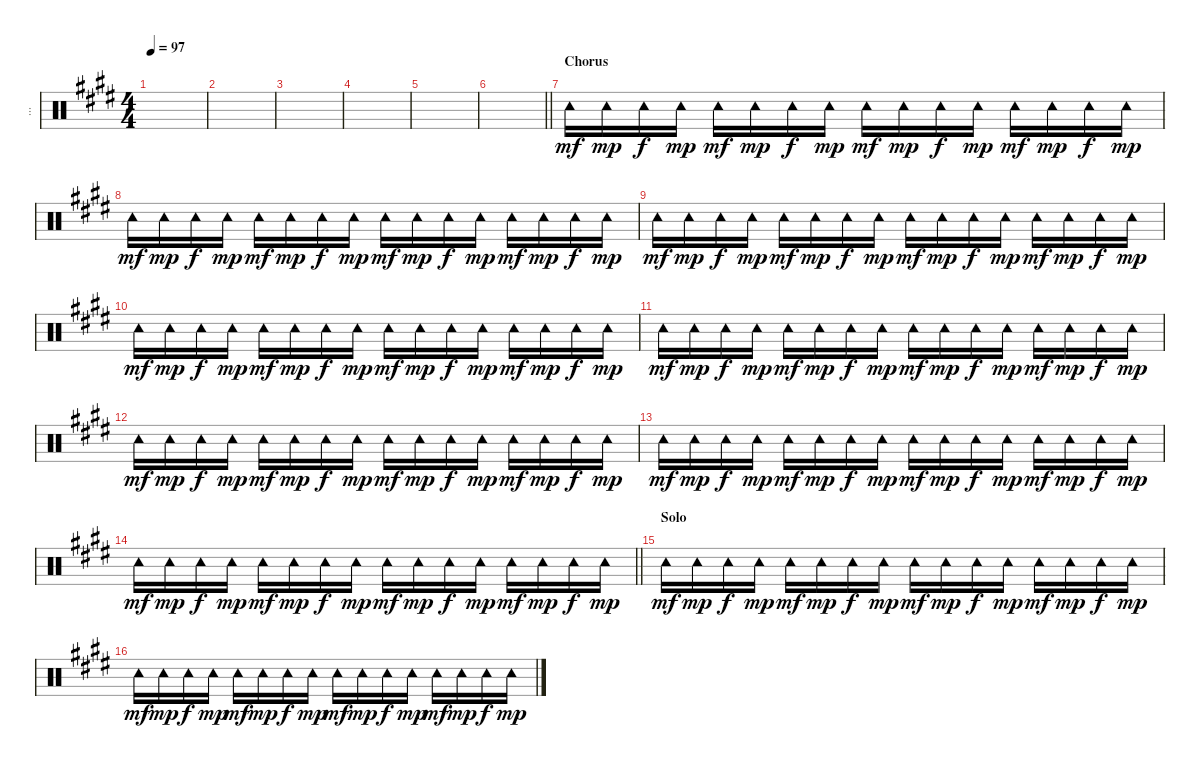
\track ("..." "...") {instrument percussion}
\staff {score}
\articulation defaults
\ts (4 4)
\tempo 97
\clef neutral
\ks c#minor
|
|
|
|
|
\barLineRight lightlight
|
\section ("" "Chorus")
"Tambourine (hit)".16{dy mf} "Tambourine (hit)".16{dy mp} "Tambourine (hit)".16{dy f} "Tambourine (hit)".16{dy mp} "Tambourine (hit)".16{dy mf} "Tambourine (hit)".16{dy mp} "Tambourine (hit)".16{dy f} "Tambourine (hit)".16{dy mp} "Tambourine (hit)".16{dy mf} "Tambourine (hit)".16{dy mp} "Tambourine (hit)".16{dy f} "Tambourine (hit)".16{dy mp} "Tambourine (hit)".16{dy mf} "Tambourine (hit)".16{dy mp} "Tambourine (hit)".16{dy f} "Tambourine (hit)".16{dy mp} |
"Tambourine (hit)".16{dy mf} "Tambourine (hit)".16{dy mp} "Tambourine (hit)".16{dy f} "Tambourine (hit)".16{dy mp} "Tambourine (hit)".16{dy mf} "Tambourine (hit)".16{dy mp} "Tambourine (hit)".16{dy f} "Tambourine (hit)".16{dy mp} "Tambourine (hit)".16{dy mf} "Tambourine (hit)".16{dy mp} "Tambourine (hit)".16{dy f} "Tambourine (hit)".16{dy mp} "Tambourine (hit)".16{dy mf} "Tambourine (hit)".16{dy mp} "Tambourine (hit)".16{dy f} "Tambourine (hit)".16{dy mp} |
"Tambourine (hit)".16{dy mf} "Tambourine (hit)".16{dy mp} "Tambourine (hit)".16{dy f} "Tambourine (hit)".16{dy mp} "Tambourine (hit)".16{dy mf} "Tambourine (hit)".16{dy mp} "Tambourine (hit)".16{dy f} "Tambourine (hit)".16{dy mp} "Tambourine (hit)".16{dy mf} "Tambourine (hit)".16{dy mp} "Tambourine (hit)".16{dy f} "Tambourine (hit)".16{dy mp} "Tambourine (hit)".16{dy mf} "Tambourine (hit)".16{dy mp} "Tambourine (hit)".16{dy f} "Tambourine (hit)".16{dy mp} |
"Tambourine (hit)".16{dy mf} "Tambourine (hit)".16{dy mp} "Tambourine (hit)".16{dy f} "Tambourine (hit)".16{dy mp} "Tambourine (hit)".16{dy mf} "Tambourine (hit)".16{dy mp} "Tambourine (hit)".16{dy f} "Tambourine (hit)".16{dy mp} "Tambourine (hit)".16{dy mf} "Tambourine (hit)".16{dy mp} "Tambourine (hit)".16{dy f} "Tambourine (hit)".16{dy mp} "Tambourine (hit)".16{dy mf} "Tambourine (hit)".16{dy mp} "Tambourine (hit)".16{dy f} "Tambourine (hit)".16{dy mp} |
"Tambourine (hit)".16{dy mf} "Tambourine (hit)".16{dy mp} "Tambourine (hit)".16{dy f} "Tambourine (hit)".16{dy mp} "Tambourine (hit)".16{dy mf} "Tambourine (hit)".16{dy mp} "Tambourine (hit)".16{dy f} "Tambourine (hit)".16{dy mp} "Tambourine (hit)".16{dy mf} "Tambourine (hit)".16{dy mp} "Tambourine (hit)".16{dy f} "Tambourine (hit)".16{dy mp} "Tambourine (hit)".16{dy mf} "Tambourine (hit)".16{dy mp} "Tambourine (hit)".16{dy f} "Tambourine (hit)".16{dy mp} |
"Tambourine (hit)".16{dy mf} "Tambourine (hit)".16{dy mp} "Tambourine (hit)".16{dy f} "Tambourine (hit)".16{dy mp} "Tambourine (hit)".16{dy mf} "Tambourine (hit)".16{dy mp} "Tambourine (hit)".16{dy f} "Tambourine (hit)".16{dy mp} "Tambourine (hit)".16{dy mf} "Tambourine (hit)".16{dy mp} "Tambourine (hit)".16{dy f} "Tambourine (hit)".16{dy mp} "Tambourine (hit)".16{dy mf} "Tambourine (hit)".16{dy mp} "Tambourine (hit)".16{dy f} "Tambourine (hit)".16{dy mp} |
"Tambourine (hit)".16{dy mf} "Tambourine (hit)".16{dy mp} "Tambourine (hit)".16{dy f} "Tambourine (hit)".16{dy mp} "Tambourine (hit)".16{dy mf} "Tambourine (hit)".16{dy mp} "Tambourine (hit)".16{dy f} "Tambourine (hit)".16{dy mp} "Tambourine (hit)".16{dy mf} "Tambourine (hit)".16{dy mp} "Tambourine (hit)".16{dy f} "Tambourine (hit)".16{dy mp} "Tambourine (hit)".16{dy mf} "Tambourine (hit)".16{dy mp} "Tambourine (hit)".16{dy f} "Tambourine (hit)".16{dy mp} |
\barLineRight lightlight "Tambourine (hit)".16{dy mf} "Tambourine (hit)".16{dy mp} "Tambourine (hit)".16{dy f} "Tambourine (hit)".16{dy mp} "Tambourine (hit)".16{dy mf} "Tambourine (hit)".16{dy mp} "Tambourine (hit)".16{dy f} "Tambourine (hit)".16{dy mp} "Tambourine (hit)".16{dy mf} "Tambourine (hit)".16{dy mp} "Tambourine (hit)".16{dy f} "Tambourine (hit)".16{dy mp} "Tambourine (hit)".16{dy mf} "Tambourine (hit)".16{dy mp} "Tambourine (hit)".16{dy f} "Tambourine (hit)".16{dy mp}
|
\section ("" "Solo")
"Tambourine (hit)".16{dy mf} "Tambourine (hit)".16{dy mp} "Tambourine (hit)".16{dy f} "Tambourine (hit)".16{dy mp} "Tambourine (hit)".16{dy mf} "Tambourine (hit)".16{dy mp} "Tambourine (hit)".16{dy f} "Tambourine (hit)".16{dy mp} "Tambourine (hit)".16{dy mf} "Tambourine (hit)".16{dy mp} "Tambourine (hit)".16{dy f} "Tambourine (hit)".16{dy mp} "Tambourine (hit)".16{dy mf} "Tambourine (hit)".16{dy mp} "Tambourine (hit)".16{dy f} "Tambourine (hit)".16{dy mp} |
"Tambourine (hit)".16{dy mf} "Tambourine (hit)".16{dy mp} "Tambourine (hit)".16{dy f} "Tambourine (hit)".16{dy mp} "Tambourine (hit)".16{dy mf} "Tambourine (hit)".16{dy mp} "Tambourine (hit)".16{dy f} "Tambourine (hit)".16{dy mp} "Tambourine (hit)".16{dy mf} "Tambourine (hit)".16{dy mp} "Tambourine (hit)".16{dy f} "Tambourine (hit)".16{dy mp} "Tambourine (hit)".16{dy mf} "Tambourine (hit)".16{dy mp} "Tambourine (hit)".16{dy f} "Tambourine (hit)".16{dy mp}
